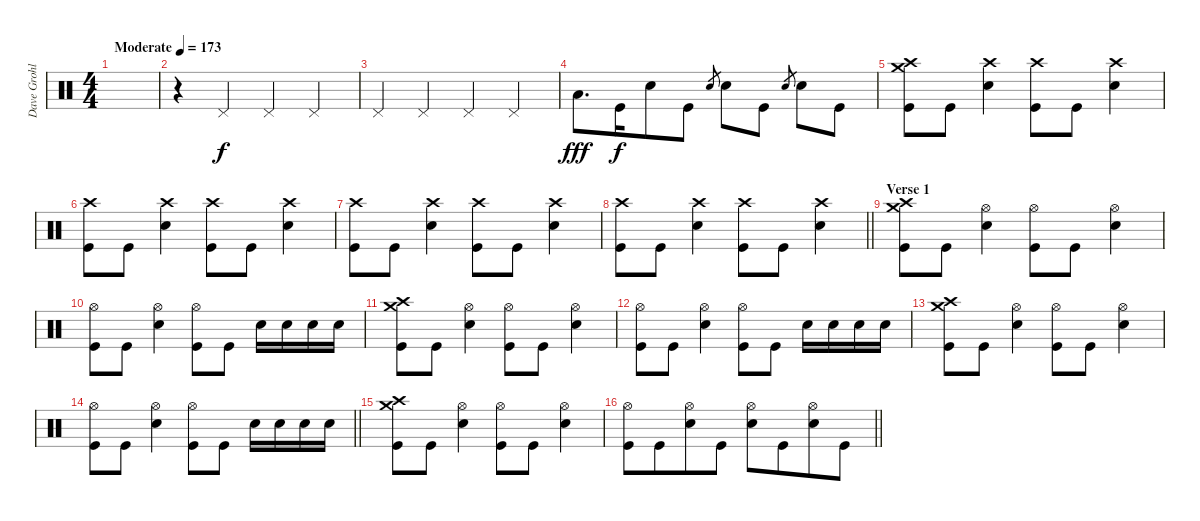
\track ("Dave Grohl" "Dave Grohl") {instrument percussion}
\staff {score}
\articulation defaults
\ts (4 4)
\tempo (173 "Moderate")
\clef neutral
\ks c
|
r.4 "Pedal Hi-Hat (hit)".4 "Pedal Hi-Hat (hit)".4 "Pedal Hi-Hat (hit)".4 |
"Pedal Hi-Hat (hit)".4 "Pedal Hi-Hat (hit)".4 "Pedal Hi-Hat (hit)".4 "Pedal Hi-Hat (hit)".4 |
"Low Floor Tom (hit)".8{d dy fff beam Down} "Kick (hit)".16{dy f beam Down beam merge} "Snare (hit) 2".8{beam Down} "Kick (hit)".8{beam Down} "Snare (hit) 2".8{gr} "Snare (hit) 2".8{beam Down} "Kick (hit)".8{beam Down} "Snare (hit) 2".8{gr beam merge} "Snare (hit) 2".8{beam Down} "Kick (hit)".8{beam Down} |
("Crash medium (hit)" "Crash high (hit)" "Kick (hit)").8 "Kick (hit)".8 ("Crash high (hit)" "Snare (hit) 2").4 ("Crash high (hit)" "Kick (hit)").8 "Kick (hit)".8 ("Crash high (hit)" "Snare (hit) 2").4 |
("Crash high (hit)" "Kick (hit)").8 "Kick (hit)".8 ("Crash high (hit)" "Snare (hit) 2").4 ("Crash high (hit)" "Kick (hit)").8 "Kick (hit)".8 ("Crash high (hit)" "Snare (hit) 2").4 |
("Crash high (hit)" "Kick (hit)").8 "Kick (hit)".8 ("Crash high (hit)" "Snare (hit) 2").4 ("Crash high (hit)" "Kick (hit)").8 "Kick (hit)".8 ("Crash high (hit)" "Snare (hit) 2").4 |
\barLineRight lightlight
("Crash high (hit)" "Kick (hit)").8 "Kick (hit)".8 ("Crash high (hit)" "Snare (hit) 2").4 ("Crash high (hit)" "Kick (hit)").8 "Kick (hit)".8 ("Crash high (hit)" "Snare (hit) 2").4 |
\section ("" "Verse 1")
("Crash medium (hit)" "Crash high (hit)" "Kick (hit)").8 "Kick (hit)".8 ("Hi-Hat (open)" "Snare (hit) 2").4 ("Hi-Hat (open)" "Kick (hit)").8 "Kick (hit)".8 ("Hi-Hat (open)" "Snare (hit) 2").4 |
("Hi-Hat (open)" "Kick (hit)").8 "Kick (hit)".8 ("Hi-Hat (open)" "Snare (hit) 2").4 ("Hi-Hat (open)" "Kick (hit)").8 "Kick (hit)".8 "Snare (hit) 2".16 "Snare (hit) 2".16 "Snare (hit) 2".16 "Snare (hit) 2".16 |
("Crash medium (hit)" "Crash high (hit)" "Kick (hit)").8 "Kick (hit)".8 ("Hi-Hat (open)" "Snare (hit) 2").4 ("Hi-Hat (open)" "Kick (hit)").8 "Kick (hit)".8 ("Hi-Hat (open)" "Snare (hit) 2").4 |
("Hi-Hat (open)" "Kick (hit)").8 "Kick (hit)".8 ("Hi-Hat (open)" "Snare (hit) 2").4 ("Hi-Hat (open)" "Kick (hit)").8 "Kick (hit)".8 "Snare (hit) 2".16 "Snare (hit) 2".16 "Snare (hit) 2".16 "Snare (hit) 2".16 |
("Crash medium (hit)" "Crash high (hit)" "Kick (hit)").8 "Kick (hit)".8 ("Hi-Hat (open)" "Snare (hit) 2").4 ("Hi-Hat (open)" "Kick (hit)").8 "Kick (hit)".8 ("Hi-Hat (open)" "Snare (hit) 2").4 |
\barLineRight lightlight
("Hi-Hat (open)" "Kick (hit)").8 "Kick (hit)".8 ("Hi-Hat (open)" "Snare (hit) 2").4 ("Hi-Hat (open)" "Kick (hit)").8 "Kick (hit)".8 "Snare (hit) 2".16 "Snare (hit) 2".16 "Snare (hit) 2".16 "Snare (hit) 2".16 |
("Crash medium (hit)" "Crash high (hit)" "Kick (hit)").8 "Kick (hit)".8 ("Hi-Hat (open)" "Snare (hit) 2").4 ("Hi-Hat (open)" "Kick (hit)").8 "Kick (hit)".8 ("Hi-Hat (open)" "Snare (hit) 2").4 |
\barLineRight lightlight
("Hi-Hat (open)" "Kick (hit)").8 "Kick (hit)".8{beam merge} ("Hi-Hat (open)" "Snare (hit) 2").8 "Kick (hit)".8 ("Hi-Hat (open)" "Snare (hit) 2").8 "Kick (hit)".8{beam merge} ("Hi-Hat (open)" "Snare (hit) 2").8 "Kick (hit)".8
